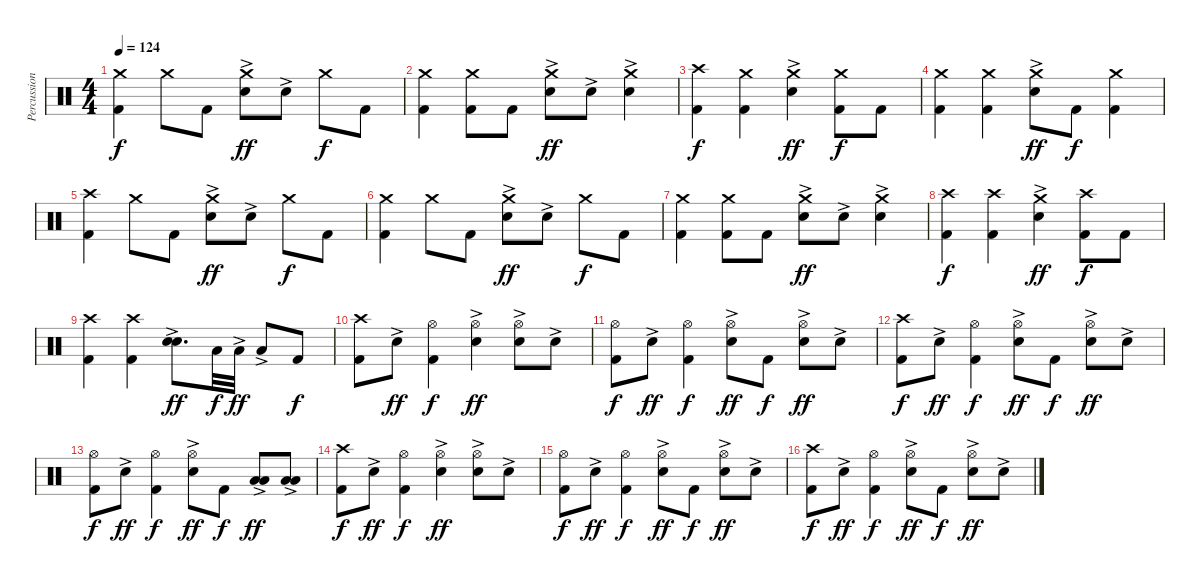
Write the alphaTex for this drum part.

\track ("Percussion" "Percussion") {instrument percussion}
\staff {score}
\articulation defaults
\ts (4 4)
\tempo 124
\clef neutral
\ks c
("Crash medium (hit)" "Kick (hit) 2").4{dy f} "Crash medium (hit)".8 "Kick (hit) 2".8 ("Crash medium (hit)" "Electric Snare (hit)"{ac}).8{dy ff} "Electric Snare (hit)"{ac}.8 "Crash medium (hit)".8{dy f} "Kick (hit) 2".8 |
("Crash medium (hit)" "Kick (hit) 2").4 ("Crash medium (hit)" "Kick (hit) 2").8 "Kick (hit) 2".8 ("Crash medium (hit)" "Electric Snare (hit)"{ac}).8{dy ff} "Electric Snare (hit)"{ac}.8 ("Crash medium (hit)" "Electric Snare (hit)"{ac}).4 |
("Crash high (hit)" "Kick (hit) 2").4{dy f} ("Crash medium (hit)" "Kick (hit) 2").4 ("Crash medium (hit)" "Electric Snare (hit)"{ac}).4{dy ff} ("Crash medium (hit)" "Kick (hit) 2").8{dy f} "Kick (hit) 2".8 |
("Crash medium (hit)" "Kick (hit) 2").4 ("Crash medium (hit)" "Kick (hit) 2").4 ("Crash medium (hit)" "Electric Snare (hit)"{ac}).8{dy ff} "Kick (hit) 2".8{dy f} ("Crash medium (hit)" "Kick (hit) 2").4 |
("Crash high (hit)" "Kick (hit) 2").4 "Crash medium (hit)".8 "Kick (hit) 2".8 ("Crash medium (hit)" "Electric Snare (hit)"{ac}).8{dy ff} "Electric Snare (hit)"{ac}.8 "Crash medium (hit)".8{dy f} "Kick (hit) 2".8 |
("Crash medium (hit)" "Kick (hit) 2").4 "Crash medium (hit)".8 "Kick (hit) 2".8 ("Crash medium (hit)" "Electric Snare (hit)"{ac}).8{dy ff} "Electric Snare (hit)"{ac}.8 "Crash medium (hit)".8{dy f} "Kick (hit) 2".8 |
("Crash medium (hit)" "Kick (hit) 2").4 ("Crash medium (hit)" "Kick (hit) 2").8 "Kick (hit) 2".8 ("Crash medium (hit)" "Electric Snare (hit)"{ac}).8{dy ff} "Electric Snare (hit)"{ac}.8 ("Crash medium (hit)" "Electric Snare (hit)"{ac}).4 |
("Crash high (hit)" "Kick (hit) 2").4{dy f} ("Crash high (hit)" "Kick (hit) 2").4 ("Crash medium (hit)" "Electric Snare (hit)"{ac}).4{dy ff} ("Crash high (hit)" "Kick (hit) 2").8{dy f} "Kick (hit) 2".8 |
("Crash high (hit)" "Kick (hit) 2").4 ("Crash high (hit)" "Kick (hit) 2").4 ("Electric Snare (hit)"{ac} "Electric Snare (hit)"{ac}).8{d bu 120 dy ff} "Low Tom (hit)".32{dy f} "Low Tom (hit)"{ac}.32{dy ff} "Low Tom (hit)"{ac}.8 "Kick (hit) 2".8{dy f} |
("Crash high (hit)" "Kick (hit) 2").8 "Electric Snare (hit)"{ac}.8{dy ff} ("Hi-Hat (open)" "Kick (hit) 2").4{dy f} ("Hi-Hat (open)" "Electric Snare (hit)"{ac}).4{dy ff} ("Hi-Hat (open)" "Electric Snare (hit)"{ac}).8 "Electric Snare (hit)"{ac}.8 |
("Hi-Hat (open)" "Kick (hit) 2").8{dy f} "Electric Snare (hit)"{ac}.8{dy ff} ("Hi-Hat (open)" "Kick (hit) 2").4{dy f} ("Hi-Hat (open)" "Electric Snare (hit)"{ac}).8{dy ff} "Kick (hit) 2".8{dy f} ("Hi-Hat (open)" "Electric Snare (hit)"{ac}).8{dy ff} "Electric Snare (hit)"{ac}.8 |
("Crash high (hit)" "Kick (hit) 2").8{dy f} "Electric Snare (hit)"{ac}.8{dy ff} ("Hi-Hat (open)" "Kick (hit) 2").4{dy f} ("Hi-Hat (open)" "Electric Snare (hit)"{ac}).8{dy ff} "Kick (hit) 2".8{dy f} ("Hi-Hat (open)" "Electric Snare (hit)"{ac}).8{dy ff} "Electric Snare (hit)"{ac}.8 |
("Hi-Hat (open)" "Kick (hit) 2").8{dy f} "Electric Snare (hit)"{ac}.8{dy ff} ("Hi-Hat (open)" "Kick (hit) 2").4{dy f} ("Hi-Hat (open)" "Electric Snare (hit)"{ac}).8{dy ff} "Kick (hit) 2".8{dy f} ("Low Tom (hit)"{ac} "Low Tom (hit)"{ac}).8{dy ff} ("Low Tom (hit)"{ac} "Low Tom (hit)"{ac}).8 |
("Crash high (hit)" "Kick (hit) 2").8{dy f} "Electric Snare (hit)"{ac}.8{dy ff} ("Hi-Hat (open)" "Kick (hit) 2").4{dy f} ("Hi-Hat (open)" "Electric Snare (hit)"{ac}).4{dy ff} ("Hi-Hat (open)" "Electric Snare (hit)"{ac}).8 "Electric Snare (hit)"{ac}.8 |
("Hi-Hat (open)" "Kick (hit) 2").8{dy f} "Electric Snare (hit)"{ac}.8{dy ff} ("Hi-Hat (open)" "Kick (hit) 2").4{dy f} ("Hi-Hat (open)" "Electric Snare (hit)"{ac}).8{dy ff} "Kick (hit) 2".8{dy f} ("Hi-Hat (open)" "Electric Snare (hit)"{ac}).8{dy ff} "Electric Snare (hit)"{ac}.8 |
("Crash high (hit)" "Kick (hit) 2").8{dy f} "Electric Snare (hit)"{ac}.8{dy ff} ("Hi-Hat (open)" "Kick (hit) 2").4{dy f} ("Hi-Hat (open)" "Electric Snare (hit)"{ac}).8{dy ff} "Kick (hit) 2".8{dy f} ("Hi-Hat (open)" "Electric Snare (hit)"{ac}).8{dy ff} "Electric Snare (hit)"{ac}.8
